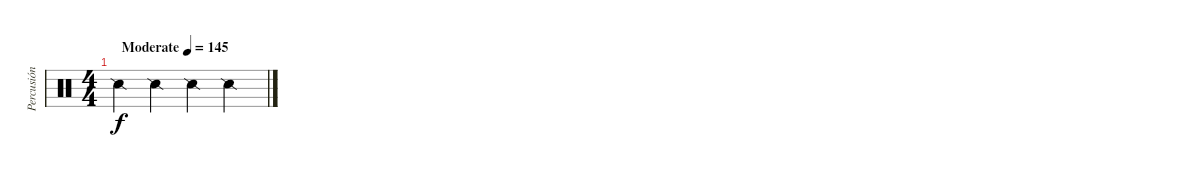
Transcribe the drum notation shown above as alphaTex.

\track ("Percusión" "Percusión") {instrument percussion}
\staff {score}
\articulation defaults
\ts (4 4)
\tempo (145 "Moderate")
\clef neutral
\ks c "Snare (side stick) 2".4{dy f} "Snare (side stick) 2".4 "Snare (side stick) 2".4 "Snare (side stick) 2".4
